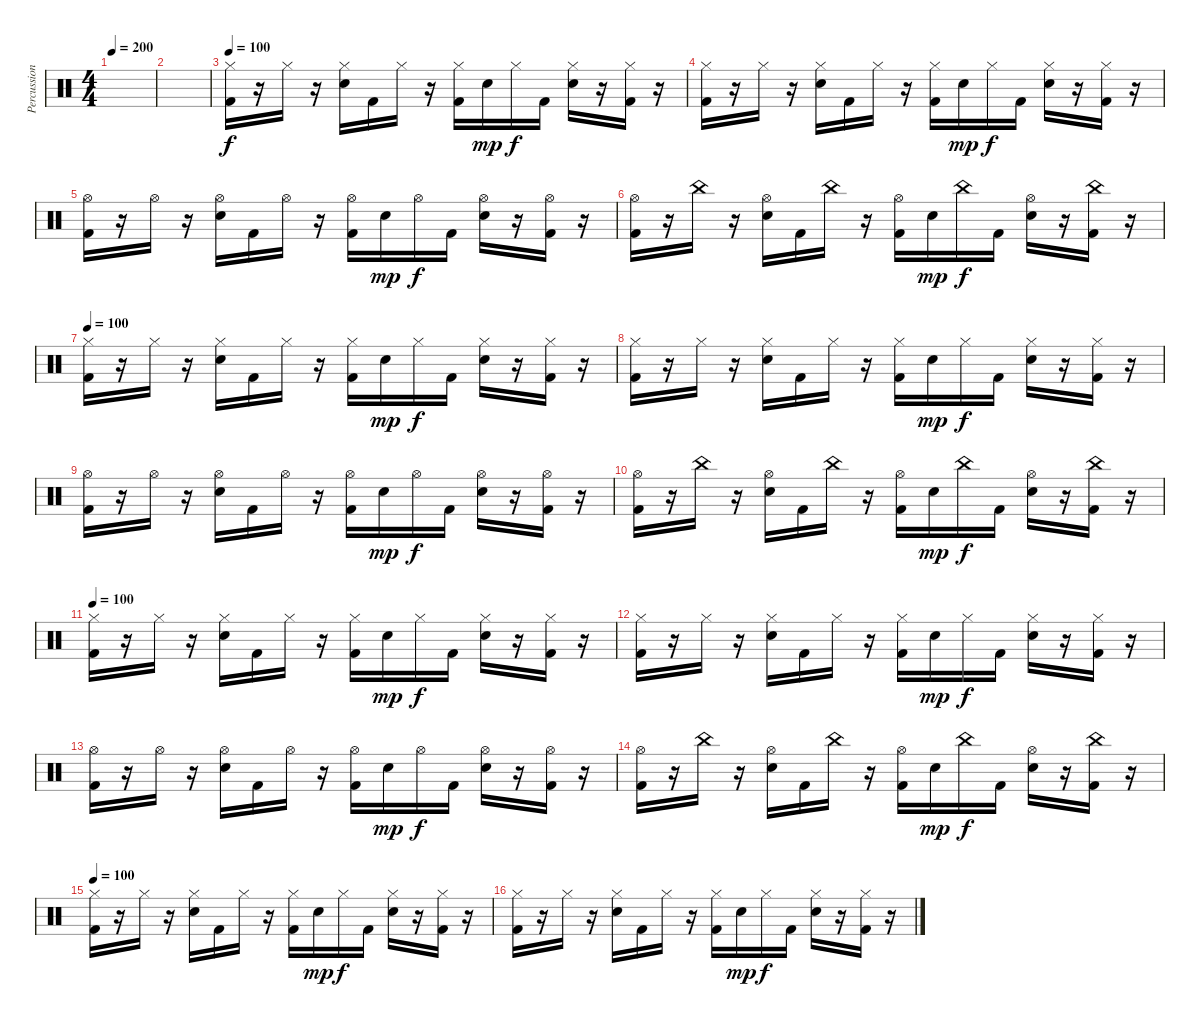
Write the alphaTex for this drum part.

\track ("Percussion" "Percussion") {instrument percussion}
\staff {score}
\articulation defaults
\ts (4 4)
\tempo 200
\clef neutral
\ks c
|
|
\tempo 100
("Hi-Hat (closed)" "Kick (hit) 2").16 r.16 "Hi-Hat (closed)".16 r.16 ("Hi-Hat (closed)" "Electric Snare (hit)").16 "Kick (hit) 2".16 "Hi-Hat (closed)".16 r.16 ("Hi-Hat (closed)" "Kick (hit) 2").16 "Electric Snare (hit)".16{dy mp} "Hi-Hat (closed)".16{dy f} "Kick (hit) 2".16 ("Hi-Hat (closed)" "Electric Snare (hit)").16 r.16 ("Hi-Hat (closed)" "Kick (hit) 2").16 r.16 |
("Hi-Hat (closed)" "Kick (hit) 2").16 r.16 "Hi-Hat (closed)".16 r.16 ("Hi-Hat (closed)" "Electric Snare (hit)").16 "Kick (hit) 2".16 "Hi-Hat (closed)".16 r.16 ("Hi-Hat (closed)" "Kick (hit) 2").16 "Electric Snare (hit)".16{dy mp} "Hi-Hat (closed)".16{dy f} "Kick (hit) 2".16 ("Hi-Hat (closed)" "Electric Snare (hit)").16 r.16 ("Hi-Hat (closed)" "Kick (hit) 2").16 r.16 |
("Hi-Hat (open)" "Kick (hit) 2").16 r.16 "Hi-Hat (open)".16 r.16 ("Hi-Hat (open)" "Electric Snare (hit)").16 "Kick (hit) 2".16 "Hi-Hat (open)".16 r.16 ("Hi-Hat (open)" "Kick (hit) 2").16 "Electric Snare (hit)".16{dy mp} "Hi-Hat (open)".16{dy f} "Kick (hit) 2".16 ("Hi-Hat (open)" "Electric Snare (hit)").16 r.16 ("Hi-Hat (open)" "Kick (hit) 2").16 r.16 |
("Hi-Hat (open)" "Kick (hit) 2").16 r.16 "China (hit)".16 r.16 ("Hi-Hat (open)" "Electric Snare (hit)").16 "Kick (hit) 2".16 "China (hit)".16 r.16 ("Hi-Hat (open)" "Kick (hit) 2").16 "Electric Snare (hit)".16{dy mp} "China (hit)".16{dy f} "Kick (hit) 2".16 ("Hi-Hat (open)" "Electric Snare (hit)").16 r.16 ("China (hit)" "Kick (hit) 2").16 r.16 |
\tempo 100
("Hi-Hat (closed)" "Kick (hit) 2").16 r.16 "Hi-Hat (closed)".16 r.16 ("Hi-Hat (closed)" "Electric Snare (hit)").16 "Kick (hit) 2".16 "Hi-Hat (closed)".16 r.16 ("Hi-Hat (closed)" "Kick (hit) 2").16 "Electric Snare (hit)".16{dy mp} "Hi-Hat (closed)".16{dy f} "Kick (hit) 2".16 ("Hi-Hat (closed)" "Electric Snare (hit)").16 r.16 ("Hi-Hat (closed)" "Kick (hit) 2").16 r.16 |
("Hi-Hat (closed)" "Kick (hit) 2").16 r.16 "Hi-Hat (closed)".16 r.16 ("Hi-Hat (closed)" "Electric Snare (hit)").16 "Kick (hit) 2".16 "Hi-Hat (closed)".16 r.16 ("Hi-Hat (closed)" "Kick (hit) 2").16 "Electric Snare (hit)".16{dy mp} "Hi-Hat (closed)".16{dy f} "Kick (hit) 2".16 ("Hi-Hat (closed)" "Electric Snare (hit)").16 r.16 ("Hi-Hat (closed)" "Kick (hit) 2").16 r.16 |
("Hi-Hat (open)" "Kick (hit) 2").16 r.16 "Hi-Hat (open)".16 r.16 ("Hi-Hat (open)" "Electric Snare (hit)").16 "Kick (hit) 2".16 "Hi-Hat (open)".16 r.16 ("Hi-Hat (open)" "Kick (hit) 2").16 "Electric Snare (hit)".16{dy mp} "Hi-Hat (open)".16{dy f} "Kick (hit) 2".16 ("Hi-Hat (open)" "Electric Snare (hit)").16 r.16 ("Hi-Hat (open)" "Kick (hit) 2").16 r.16 |
("Hi-Hat (open)" "Kick (hit) 2").16 r.16 "China (hit)".16 r.16 ("Hi-Hat (open)" "Electric Snare (hit)").16 "Kick (hit) 2".16 "China (hit)".16 r.16 ("Hi-Hat (open)" "Kick (hit) 2").16 "Electric Snare (hit)".16{dy mp} "China (hit)".16{dy f} "Kick (hit) 2".16 ("Hi-Hat (open)" "Electric Snare (hit)").16 r.16 ("China (hit)" "Kick (hit) 2").16 r.16 |
\tempo 100
("Hi-Hat (closed)" "Kick (hit) 2").16 r.16 "Hi-Hat (closed)".16 r.16 ("Hi-Hat (closed)" "Electric Snare (hit)").16 "Kick (hit) 2".16 "Hi-Hat (closed)".16 r.16 ("Hi-Hat (closed)" "Kick (hit) 2").16 "Electric Snare (hit)".16{dy mp} "Hi-Hat (closed)".16{dy f} "Kick (hit) 2".16 ("Hi-Hat (closed)" "Electric Snare (hit)").16 r.16 ("Hi-Hat (closed)" "Kick (hit) 2").16 r.16 |
("Hi-Hat (closed)" "Kick (hit) 2").16 r.16 "Hi-Hat (closed)".16 r.16 ("Hi-Hat (closed)" "Electric Snare (hit)").16 "Kick (hit) 2".16 "Hi-Hat (closed)".16 r.16 ("Hi-Hat (closed)" "Kick (hit) 2").16 "Electric Snare (hit)".16{dy mp} "Hi-Hat (closed)".16{dy f} "Kick (hit) 2".16 ("Hi-Hat (closed)" "Electric Snare (hit)").16 r.16 ("Hi-Hat (closed)" "Kick (hit) 2").16 r.16 |
("Hi-Hat (open)" "Kick (hit) 2").16 r.16 "Hi-Hat (open)".16 r.16 ("Hi-Hat (open)" "Electric Snare (hit)").16 "Kick (hit) 2".16 "Hi-Hat (open)".16 r.16 ("Hi-Hat (open)" "Kick (hit) 2").16 "Electric Snare (hit)".16{dy mp} "Hi-Hat (open)".16{dy f} "Kick (hit) 2".16 ("Hi-Hat (open)" "Electric Snare (hit)").16 r.16 ("Hi-Hat (open)" "Kick (hit) 2").16 r.16 |
("Hi-Hat (open)" "Kick (hit) 2").16 r.16 "China (hit)".16 r.16 ("Hi-Hat (open)" "Electric Snare (hit)").16 "Kick (hit) 2".16 "China (hit)".16 r.16 ("Hi-Hat (open)" "Kick (hit) 2").16 "Electric Snare (hit)".16{dy mp} "China (hit)".16{dy f} "Kick (hit) 2".16 ("Hi-Hat (open)" "Electric Snare (hit)").16 r.16 ("China (hit)" "Kick (hit) 2").16 r.16 |
\tempo 100
("Hi-Hat (closed)" "Kick (hit) 2").16 r.16 "Hi-Hat (closed)".16 r.16 ("Hi-Hat (closed)" "Electric Snare (hit)").16 "Kick (hit) 2".16 "Hi-Hat (closed)".16 r.16 ("Hi-Hat (closed)" "Kick (hit) 2").16 "Electric Snare (hit)".16{dy mp} "Hi-Hat (closed)".16{dy f} "Kick (hit) 2".16 ("Hi-Hat (closed)" "Electric Snare (hit)").16 r.16 ("Hi-Hat (closed)" "Kick (hit) 2").16 r.16 |
("Hi-Hat (closed)" "Kick (hit) 2").16 r.16 "Hi-Hat (closed)".16 r.16 ("Hi-Hat (closed)" "Electric Snare (hit)").16 "Kick (hit) 2".16 "Hi-Hat (closed)".16 r.16 ("Hi-Hat (closed)" "Kick (hit) 2").16 "Electric Snare (hit)".16{dy mp} "Hi-Hat (closed)".16{dy f} "Kick (hit) 2".16 ("Hi-Hat (closed)" "Electric Snare (hit)").16 r.16 ("Hi-Hat (closed)" "Kick (hit) 2").16 r.16
